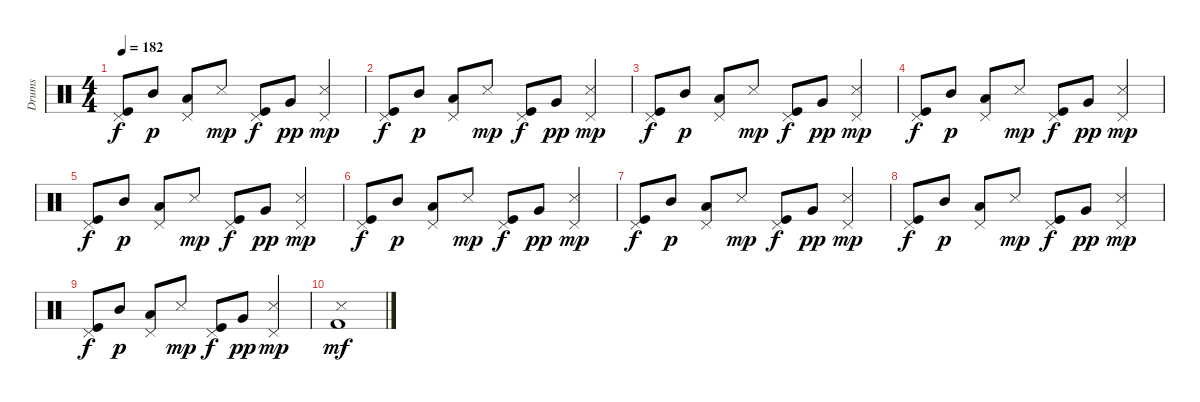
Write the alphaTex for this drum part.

\track ("Drums" "Drums") {instrument percussion}
\staff {score}
\articulation defaults
\ts (4 4)
\tempo 182
\clef neutral
\ks c
("Pedal Hi-Hat (hit)" "Kick (hit)").8{dy f} "Mid Tom (hit)".8{dy p} ("Pedal Hi-Hat (hit)" "Low Tom (hit)").8 "Snare (side stick) 3".8{dy mp} ("Pedal Hi-Hat (hit)" "Kick (hit)").8{dy f} "Very Low Tom (hit)".8{dy pp} ("Pedal Hi-Hat (hit)" "Snare (side stick) 3").4{dy mp} |
("Pedal Hi-Hat (hit)" "Kick (hit)").8{dy f} "Mid Tom (hit)".8{dy p} ("Pedal Hi-Hat (hit)" "Low Tom (hit)").8 "Snare (side stick) 3".8{dy mp} ("Pedal Hi-Hat (hit)" "Kick (hit)").8{dy f} "Very Low Tom (hit)".8{dy pp} ("Pedal Hi-Hat (hit)" "Snare (side stick) 3").4{dy mp} |
("Pedal Hi-Hat (hit)" "Kick (hit)").8{dy f} "Mid Tom (hit)".8{dy p} ("Pedal Hi-Hat (hit)" "Low Tom (hit)").8 "Snare (side stick) 3".8{dy mp} ("Pedal Hi-Hat (hit)" "Kick (hit)").8{dy f} "Very Low Tom (hit)".8{dy pp} ("Pedal Hi-Hat (hit)" "Snare (side stick) 3").4{dy mp} |
("Pedal Hi-Hat (hit)" "Kick (hit)").8{dy f} "Mid Tom (hit)".8{dy p} ("Pedal Hi-Hat (hit)" "Low Tom (hit)").8 "Snare (side stick) 3".8{dy mp} ("Pedal Hi-Hat (hit)" "Kick (hit)").8{dy f} "Very Low Tom (hit)".8{dy pp} ("Pedal Hi-Hat (hit)" "Snare (side stick) 3").4{dy mp} |
("Pedal Hi-Hat (hit)" "Kick (hit)").8{dy f} "Mid Tom (hit)".8{dy p} ("Pedal Hi-Hat (hit)" "Low Tom (hit)").8 "Snare (side stick) 3".8{dy mp} ("Pedal Hi-Hat (hit)" "Kick (hit)").8{dy f} "Very Low Tom (hit)".8{dy pp} ("Pedal Hi-Hat (hit)" "Snare (side stick) 3").4{dy mp} |
("Pedal Hi-Hat (hit)" "Kick (hit)").8{dy f} "Mid Tom (hit)".8{dy p} ("Pedal Hi-Hat (hit)" "Low Tom (hit)").8 "Snare (side stick) 3".8{dy mp} ("Pedal Hi-Hat (hit)" "Kick (hit)").8{dy f} "Very Low Tom (hit)".8{dy pp} ("Pedal Hi-Hat (hit)" "Snare (side stick) 3").4{dy mp} |
("Pedal Hi-Hat (hit)" "Kick (hit)").8{dy f} "Mid Tom (hit)".8{dy p} ("Pedal Hi-Hat (hit)" "Low Tom (hit)").8 "Snare (side stick) 3".8{dy mp} ("Pedal Hi-Hat (hit)" "Kick (hit)").8{dy f} "Very Low Tom (hit)".8{dy pp} ("Pedal Hi-Hat (hit)" "Snare (side stick) 3").4{dy mp} |
("Pedal Hi-Hat (hit)" "Kick (hit)").8{dy f} "Mid Tom (hit)".8{dy p} ("Pedal Hi-Hat (hit)" "Low Tom (hit)").8 "Snare (side stick) 3".8{dy mp} ("Pedal Hi-Hat (hit)" "Kick (hit)").8{dy f} "Very Low Tom (hit)".8{dy pp} ("Pedal Hi-Hat (hit)" "Snare (side stick) 3").4{dy mp} |
("Pedal Hi-Hat (hit)" "Kick (hit)").8{dy f} "Mid Tom (hit)".8{dy p} ("Pedal Hi-Hat (hit)" "Low Tom (hit)").8 "Snare (side stick) 3".8{dy mp} ("Pedal Hi-Hat (hit)" "Kick (hit)").8{dy f} "Very Low Tom (hit)".8{dy pp} ("Pedal Hi-Hat (hit)" "Snare (side stick) 3").4{dy mp} |
("Snare (side stick) 3" "Kick (hit) 2").1{dy mf}
